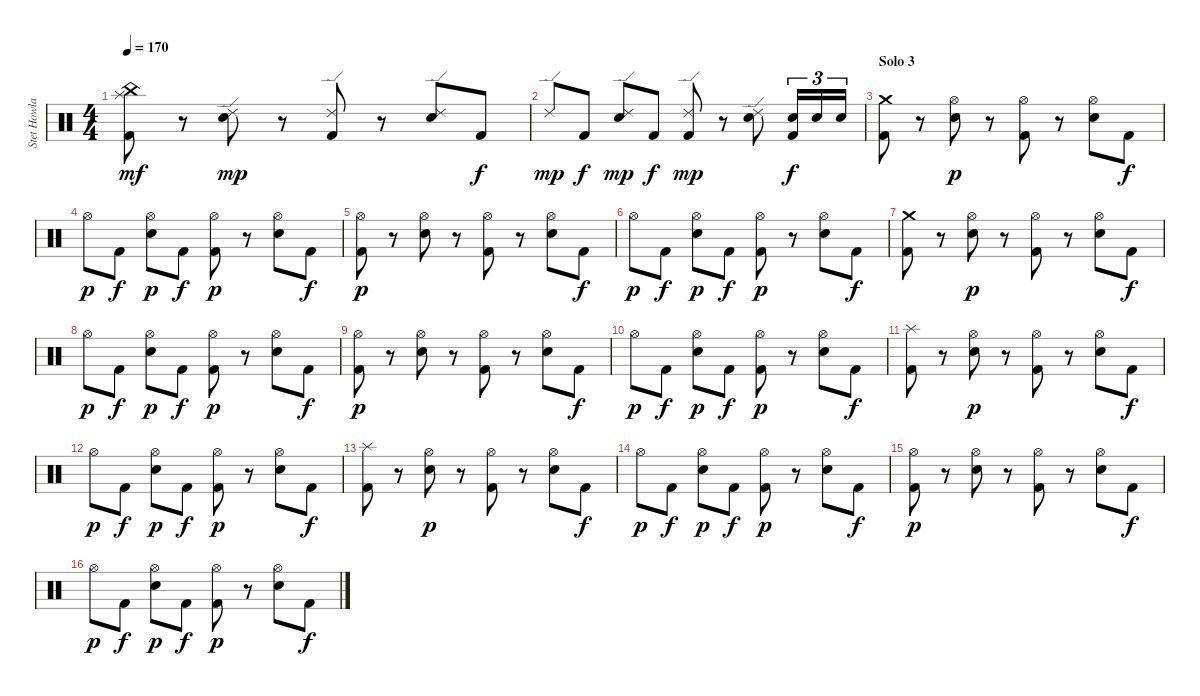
\track ("Stet Howland" "Stet Howla") {instrument percussion}
\staff {score}
\articulation defaults
\ts (4 4)
\tempo 170
\clef neutral
\ks c
("Splash (hit)" "China (hit)" "Kick (hit) 2").8{dy mf} r.8 ("Ride (edge) 2" "Electric Snare (hit)").8{dy mp} r.8 ("Ride (edge) 2" "Kick (hit) 2").8 r.8 ("Ride (edge) 2" "Electric Snare (hit)").8 "Kick (hit) 2".8{dy f} |
"Ride (edge) 2".8{dy mp} "Kick (hit) 2".8{dy f} ("Ride (edge) 2" "Electric Snare (hit)").8{dy mp} "Kick (hit) 2".8{dy f} ("Ride (edge) 2" "Kick (hit) 2").8{dy mp} r.8 ("Ride (edge) 2" "Electric Snare (hit)").8 ("Electric Snare (hit)" "Kick (hit) 2").16{tu (3 2) dy f} "Electric Snare (hit)".16{tu (3 2)} "Electric Snare (hit)".16{tu (3 2)} |
\section ("" "Solo 3")
("Crash medium (hit)" "Kick (hit) 2").8 r.8 ("Hi-Hat (open)" "Electric Snare (hit)").8{dy p} r.8 ("Hi-Hat (open)" "Kick (hit) 2").8 r.8 ("Hi-Hat (open)" "Electric Snare (hit)").8 "Kick (hit) 2".8{dy f} |
"Hi-Hat (open)".8{dy p} "Kick (hit) 2".8{dy f} ("Hi-Hat (open)" "Electric Snare (hit)").8{dy p} "Kick (hit) 2".8{dy f} ("Hi-Hat (open)" "Kick (hit) 2").8{dy p} r.8 ("Hi-Hat (open)" "Electric Snare (hit)").8 "Kick (hit) 2".8{dy f} |
("Hi-Hat (open)" "Kick (hit) 2").8{dy p} r.8 ("Hi-Hat (open)" "Electric Snare (hit)").8 r.8 ("Hi-Hat (open)" "Kick (hit) 2").8 r.8 ("Hi-Hat (open)" "Electric Snare (hit)").8 "Kick (hit) 2".8{dy f} |
"Hi-Hat (open)".8{dy p} "Kick (hit) 2".8{dy f} ("Hi-Hat (open)" "Electric Snare (hit)").8{dy p} "Kick (hit) 2".8{dy f} ("Hi-Hat (open)" "Kick (hit) 2").8{dy p} r.8 ("Hi-Hat (open)" "Electric Snare (hit)").8 "Kick (hit) 2".8{dy f} |
("Crash medium (hit)" "Kick (hit) 2").8 r.8 ("Hi-Hat (open)" "Electric Snare (hit)").8{dy p} r.8 ("Hi-Hat (open)" "Kick (hit) 2").8 r.8 ("Hi-Hat (open)" "Electric Snare (hit)").8 "Kick (hit) 2".8{dy f} |
"Hi-Hat (open)".8{dy p} "Kick (hit) 2".8{dy f} ("Hi-Hat (open)" "Electric Snare (hit)").8{dy p} "Kick (hit) 2".8{dy f} ("Hi-Hat (open)" "Kick (hit) 2").8{dy p} r.8 ("Hi-Hat (open)" "Electric Snare (hit)").8 "Kick (hit) 2".8{dy f} |
("Hi-Hat (open)" "Kick (hit) 2").8{dy p} r.8 ("Hi-Hat (open)" "Electric Snare (hit)").8 r.8 ("Hi-Hat (open)" "Kick (hit) 2").8 r.8 ("Hi-Hat (open)" "Electric Snare (hit)").8 "Kick (hit) 2".8{dy f} |
"Hi-Hat (open)".8{dy p} "Kick (hit) 2".8{dy f} ("Hi-Hat (open)" "Electric Snare (hit)").8{dy p} "Kick (hit) 2".8{dy f} ("Hi-Hat (open)" "Kick (hit) 2").8{dy p} r.8 ("Hi-Hat (open)" "Electric Snare (hit)").8 "Kick (hit) 2".8{dy f} |
("Splash (hit)" "Kick (hit) 2").8 r.8 ("Hi-Hat (open)" "Electric Snare (hit)").8{dy p} r.8 ("Hi-Hat (open)" "Kick (hit) 2").8 r.8 ("Hi-Hat (open)" "Electric Snare (hit)").8 "Kick (hit) 2".8{dy f} |
"Hi-Hat (open)".8{dy p} "Kick (hit) 2".8{dy f} ("Hi-Hat (open)" "Electric Snare (hit)").8{dy p} "Kick (hit) 2".8{dy f} ("Hi-Hat (open)" "Kick (hit) 2").8{dy p} r.8 ("Hi-Hat (open)" "Electric Snare (hit)").8 "Kick (hit) 2".8{dy f} |
("Splash (hit)" "Kick (hit) 2").8 r.8 ("Hi-Hat (open)" "Electric Snare (hit)").8{dy p} r.8 ("Hi-Hat (open)" "Kick (hit) 2").8 r.8 ("Hi-Hat (open)" "Electric Snare (hit)").8 "Kick (hit) 2".8{dy f} |
"Hi-Hat (open)".8{dy p} "Kick (hit) 2".8{dy f} ("Hi-Hat (open)" "Electric Snare (hit)").8{dy p} "Kick (hit) 2".8{dy f} ("Hi-Hat (open)" "Kick (hit) 2").8{dy p} r.8 ("Hi-Hat (open)" "Electric Snare (hit)").8 "Kick (hit) 2".8{dy f} |
("Hi-Hat (open)" "Kick (hit) 2").8{dy p} r.8 ("Hi-Hat (open)" "Electric Snare (hit)").8 r.8 ("Hi-Hat (open)" "Kick (hit) 2").8 r.8 ("Hi-Hat (open)" "Electric Snare (hit)").8 "Kick (hit) 2".8{dy f} |
"Hi-Hat (open)".8{dy p} "Kick (hit) 2".8{dy f} ("Hi-Hat (open)" "Electric Snare (hit)").8{dy p} "Kick (hit) 2".8{dy f} ("Hi-Hat (open)" "Kick (hit) 2").8{dy p} r.8 ("Hi-Hat (open)" "Electric Snare (hit)").8 "Kick (hit) 2".8{dy f}
